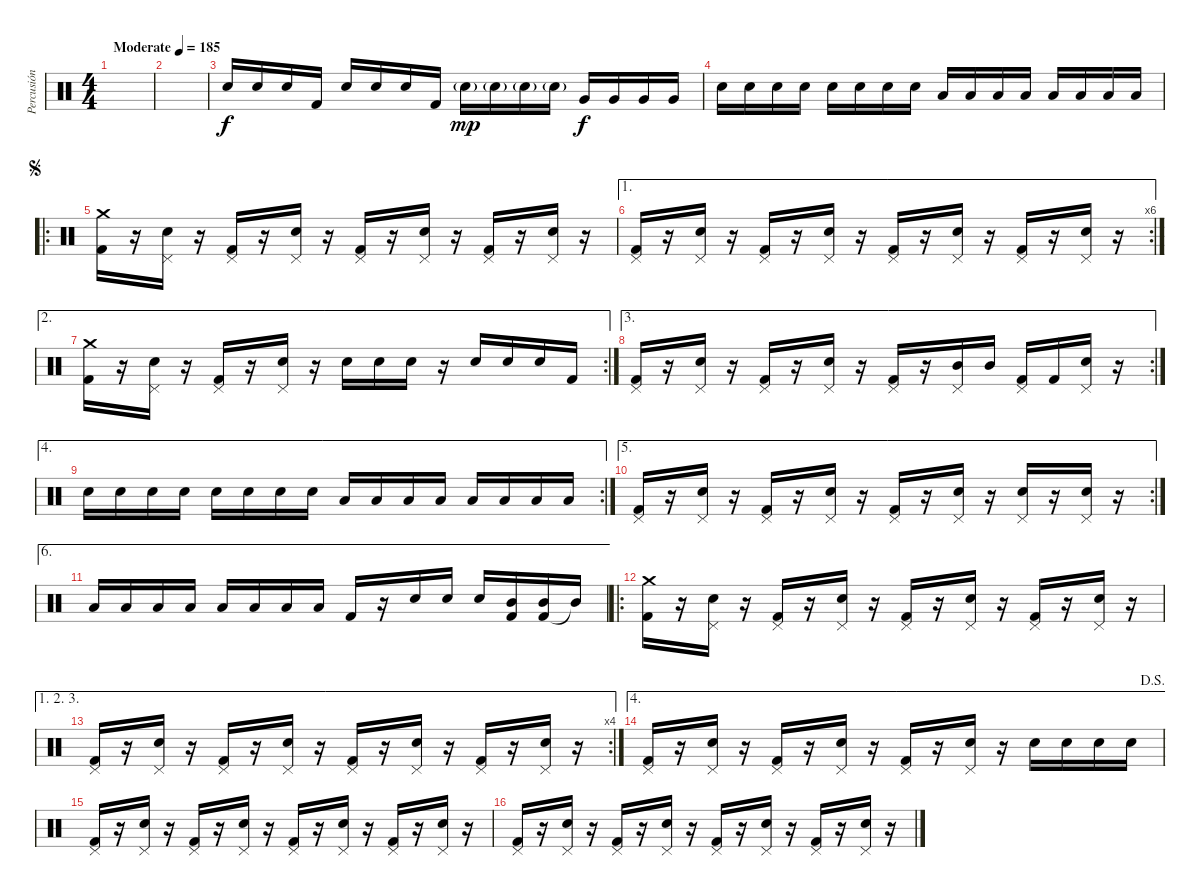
\track ("Percusión" "Percusión") {solo instrument percussion}
\staff {score}
\articulation defaults
\ts (4 4)
\tempo (185 "Moderate")
\clef neutral
\ks c
|
|
"Electric Snare (hit)".16 "Electric Snare (hit)".16 "Electric Snare (hit)".16 "Kick (hit) 2".16 "Electric Snare (hit)".16 "Electric Snare (hit)".16 "Electric Snare (hit)".16 "Kick (hit) 2".16 "Electric Snare (hit)"{g}.16{dy mp} "Electric Snare (hit)"{g}.16 "Electric Snare (hit)"{g}.16 "Electric Snare (hit)"{g}.16 "Very Low Tom (hit)".16{dy f} "Very Low Tom (hit)".16 "Very Low Tom (hit)".16 "Very Low Tom (hit)".16 |
"Electric Snare (hit)".16 "Electric Snare (hit)".16 "Electric Snare (hit)".16 "Electric Snare (hit)".16 "Electric Snare (hit)".16 "Electric Snare (hit)".16 "Electric Snare (hit)".16 "Electric Snare (hit)".16 "Low Tom (hit)".16 "Low Tom (hit)".16 "Low Tom (hit)".16 "Low Tom (hit)".16 "Low Tom (hit)".16 "Low Tom (hit)".16 "Low Tom (hit)".16 "Low Tom (hit)".16 |
\ro
\jump segno
("Crash medium (hit)" "Kick (hit) 2").16 r.16 ("Electric Snare (hit)" "Pedal Hi-Hat (hit)").16 r.16 ("Kick (hit) 2" "Pedal Hi-Hat (hit)").16 r.16 ("Electric Snare (hit)" "Pedal Hi-Hat (hit)").16 r.16 ("Kick (hit) 2" "Pedal Hi-Hat (hit)").16 r.16 ("Electric Snare (hit)" "Pedal Hi-Hat (hit)").16 r.16 ("Kick (hit) 2" "Pedal Hi-Hat (hit)").16 r.16 ("Electric Snare (hit)" "Pedal Hi-Hat (hit)").16 r.16 |
\ae 1
\rc 6
("Kick (hit) 2" "Pedal Hi-Hat (hit)").16 r.16 ("Electric Snare (hit)" "Pedal Hi-Hat (hit)").16 r.16 ("Kick (hit) 2" "Pedal Hi-Hat (hit)").16 r.16 ("Electric Snare (hit)" "Pedal Hi-Hat (hit)").16 r.16 ("Kick (hit) 2" "Pedal Hi-Hat (hit)").16 r.16 ("Electric Snare (hit)" "Pedal Hi-Hat (hit)").16 r.16 ("Kick (hit) 2" "Pedal Hi-Hat (hit)").16 r.16 ("Electric Snare (hit)" "Pedal Hi-Hat (hit)").16 r.16 |
\ae 2
\rc 2
("Crash medium (hit)" "Kick (hit) 2").16 r.16 ("Electric Snare (hit)" "Pedal Hi-Hat (hit)").16 r.16 ("Kick (hit) 2" "Pedal Hi-Hat (hit)").16 r.16 ("Electric Snare (hit)" "Pedal Hi-Hat (hit)").16 r.16 "Electric Snare (hit)".16 "Electric Snare (hit)".16 "Electric Snare (hit)".16 r.16 "Electric Snare (hit)".16 "Electric Snare (hit)".16 "Electric Snare (hit)".16 "Kick (hit) 2".16 |
\ae 3
\rc 2
("Kick (hit) 2" "Pedal Hi-Hat (hit)").16 r.16 ("Electric Snare (hit)" "Pedal Hi-Hat (hit)").16 r.16 ("Kick (hit) 2" "Pedal Hi-Hat (hit)").16 r.16 ("Electric Snare (hit)" "Pedal Hi-Hat (hit)").16 r.16 ("Kick (hit) 2" "Pedal Hi-Hat (hit)").16 r.16 ("Mid Tom (hit)" "Pedal Hi-Hat (hit)").16 "Mid Tom (hit)".16 ("Kick (hit) 2" "Pedal Hi-Hat (hit)").16 "Kick (hit) 2".16 ("Electric Snare (hit)" "Pedal Hi-Hat (hit)").16 r.16 |
\ae 4
\rc 2 "Electric Snare (hit)".16 "Electric Snare (hit)".16 "Electric Snare (hit)".16 "Electric Snare (hit)".16 "Electric Snare (hit)".16 "Electric Snare (hit)".16 "Electric Snare (hit)".16 "Electric Snare (hit)".16 "Low Tom (hit)".16 "Low Tom (hit)".16 "Low Tom (hit)".16 "Low Tom (hit)".16 "Low Tom (hit)".16 "Low Tom (hit)".16 "Low Tom (hit)".16 "Low Tom (hit)".16
|
\ae 5
\rc 2
("Kick (hit) 2" "Pedal Hi-Hat (hit)").16 r.16 ("Electric Snare (hit)" "Pedal Hi-Hat (hit)").16 r.16 ("Kick (hit) 2" "Pedal Hi-Hat (hit)").16 r.16 ("Electric Snare (hit)" "Pedal Hi-Hat (hit)").16 r.16 ("Kick (hit) 2" "Pedal Hi-Hat (hit)").16 r.16 ("Electric Snare (hit)" "Pedal Hi-Hat (hit)").16 r.16 ("Electric Snare (hit)" "Pedal Hi-Hat (hit)").16 r.16 ("Electric Snare (hit)" "Pedal Hi-Hat (hit)").16 r.16 |
\ae 6 "Low Tom (hit)".16 "Low Tom (hit)".16 "Low Tom (hit)".16 "Low Tom (hit)".16 "Low Tom (hit)".16 "Low Tom (hit)".16 "Low Tom (hit)".16 "Low Tom (hit)".16 "Kick (hit) 2".16
r.16 "Electric Snare (hit)".16 "Electric Snare (hit)".16 "Electric Snare (hit)".16 ("Kick (hit) 2" "Mid Tom (hit)").16 ("Kick (hit) 2" "Mid Tom (hit)").16 "Mid Tom (hit)"{t}.16 |
\ro
("Kick (hit) 2" "Crash medium (hit)").16 r.16 ("Electric Snare (hit)" "Pedal Hi-Hat (hit)").16 r.16 ("Kick (hit) 2" "Pedal Hi-Hat (hit)").16 r.16 ("Electric Snare (hit)" "Pedal Hi-Hat (hit)").16 r.16 ("Kick (hit) 2" "Pedal Hi-Hat (hit)").16 r.16 ("Electric Snare (hit)" "Pedal Hi-Hat (hit)").16 r.16 ("Kick (hit) 2" "Pedal Hi-Hat (hit)").16 r.16 ("Electric Snare (hit)" "Pedal Hi-Hat (hit)").16 r.16 |
\ae (1 2 3)
\rc 4
("Kick (hit) 2" "Pedal Hi-Hat (hit)").16 r.16 ("Electric Snare (hit)" "Pedal Hi-Hat (hit)").16 r.16 ("Kick (hit) 2" "Pedal Hi-Hat (hit)").16 r.16 ("Electric Snare (hit)" "Pedal Hi-Hat (hit)").16 r.16 ("Kick (hit) 2" "Pedal Hi-Hat (hit)").16 r.16 ("Electric Snare (hit)" "Pedal Hi-Hat (hit)").16 r.16 ("Kick (hit) 2" "Pedal Hi-Hat (hit)").16 r.16 ("Electric Snare (hit)" "Pedal Hi-Hat (hit)").16 r.16 |
\ae 4
\jump dalsegno
("Kick (hit) 2" "Pedal Hi-Hat (hit)").16 r.16 ("Electric Snare (hit)" "Pedal Hi-Hat (hit)").16 r.16 ("Kick (hit) 2" "Pedal Hi-Hat (hit)").16 r.16 ("Electric Snare (hit)" "Pedal Hi-Hat (hit)").16 r.16 ("Kick (hit) 2" "Pedal Hi-Hat (hit)").16 r.16 ("Electric Snare (hit)" "Pedal Hi-Hat (hit)").16 r.16 "Electric Snare (hit)".16 "Electric Snare (hit)".16 "Electric Snare (hit)".16 "Electric Snare (hit)".16 |
("Kick (hit) 2" "Pedal Hi-Hat (hit)").16 r.16 ("Electric Snare (hit)" "Pedal Hi-Hat (hit)").16 r.16 ("Kick (hit) 2" "Pedal Hi-Hat (hit)").16 r.16 ("Electric Snare (hit)" "Pedal Hi-Hat (hit)").16 r.16 ("Kick (hit) 2" "Pedal Hi-Hat (hit)").16 r.16 ("Electric Snare (hit)" "Pedal Hi-Hat (hit)").16 r.16 ("Kick (hit) 2" "Pedal Hi-Hat (hit)").16 r.16 ("Electric Snare (hit)" "Pedal Hi-Hat (hit)").16 r.16 |
("Kick (hit) 2" "Pedal Hi-Hat (hit)").16 r.16 ("Electric Snare (hit)" "Pedal Hi-Hat (hit)").16 r.16 ("Kick (hit) 2" "Pedal Hi-Hat (hit)").16 r.16 ("Electric Snare (hit)" "Pedal Hi-Hat (hit)").16 r.16 ("Kick (hit) 2" "Pedal Hi-Hat (hit)").16 r.16 ("Electric Snare (hit)" "Pedal Hi-Hat (hit)").16 r.16 ("Kick (hit) 2" "Pedal Hi-Hat (hit)").16 r.16 ("Electric Snare (hit)" "Pedal Hi-Hat (hit)").16 r.16
